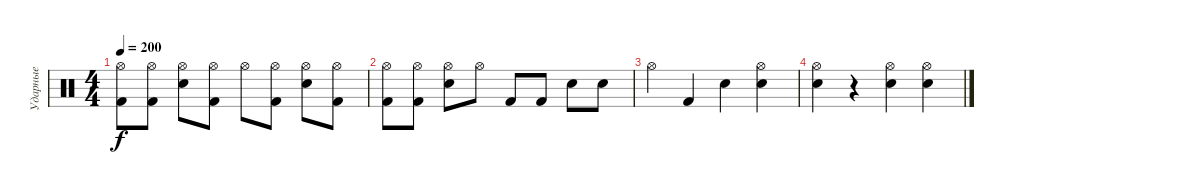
\track ("Ударные" "Ударные") {instrument percussion}
\staff {score}
\articulation defaults
\ts (4 4)
\tempo 200
\clef neutral
\ks c
("Kick (hit) 2" "Hi-Hat (open)").8{dy f} ("Kick (hit) 2" "Hi-Hat (open)").8 ("Snare (hit) 2" "Hi-Hat (open)").8 ("Kick (hit) 2" "Hi-Hat (open)").8 "Hi-Hat (open)".8 ("Kick (hit) 2" "Hi-Hat (open)").8 ("Snare (hit) 2" "Hi-Hat (open)").8 ("Kick (hit) 2" "Hi-Hat (open)").8 |
("Kick (hit) 2" "Hi-Hat (open)").8 ("Kick (hit) 2" "Hi-Hat (open)").8 ("Snare (hit) 2" "Hi-Hat (open)").8 "Hi-Hat (open)".8 "Kick (hit) 2".8 "Kick (hit) 2".8 "Snare (hit) 2".8 "Snare (hit) 2".8 |
"Hi-Hat (open)".4 "Kick (hit) 2".4 "Snare (hit) 2".4 ("Snare (hit) 2" "Hi-Hat (open)").4 |
("Snare (hit) 2" "Hi-Hat (open)").4 r.4 ("Snare (hit) 2" "Hi-Hat (open)").4 ("Snare (hit) 2" "Hi-Hat (open)").4
